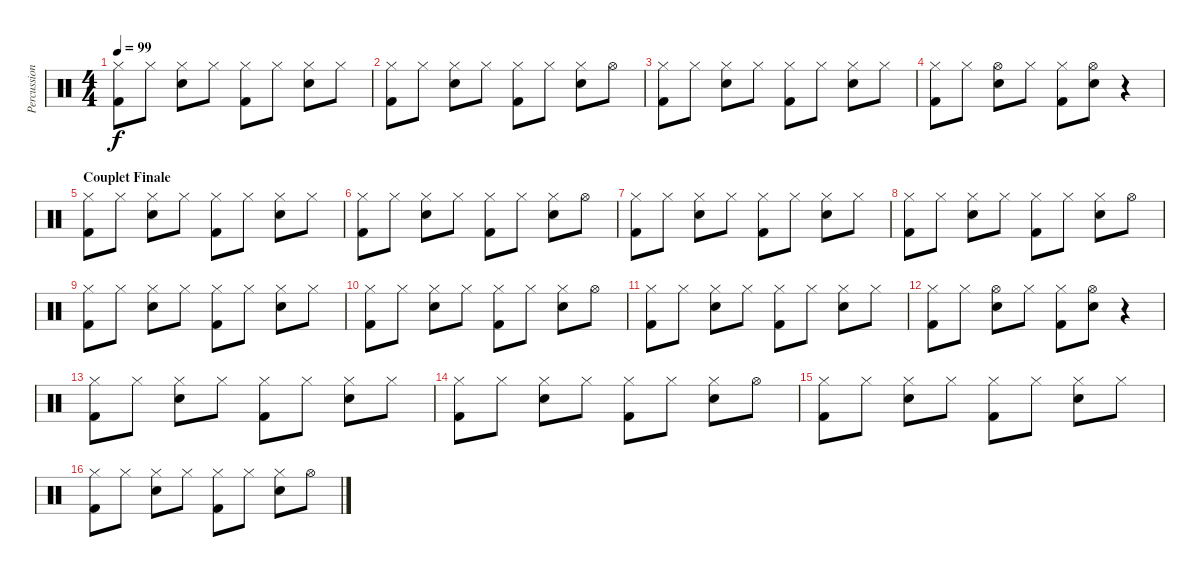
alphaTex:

\track ("Percussions" "Percussion") {instrument percussion}
\staff {score}
\articulation defaults
\ts (4 4)
\tempo 99
\clef neutral
\ks c
("Hi-Hat (closed)" "Kick (hit) 2").8{dy f} "Hi-Hat (closed)".8 ("Hi-Hat (closed)" "Electric Snare (hit)").8 "Hi-Hat (closed)".8 ("Hi-Hat (closed)" "Kick (hit) 2").8 "Hi-Hat (closed)".8 ("Hi-Hat (closed)" "Electric Snare (hit)").8 "Hi-Hat (closed)".8 |
("Hi-Hat (closed)" "Kick (hit) 2").8 "Hi-Hat (closed)".8 ("Hi-Hat (closed)" "Electric Snare (hit)").8 "Hi-Hat (closed)".8 ("Hi-Hat (closed)" "Kick (hit) 2").8 "Hi-Hat (closed)".8 ("Hi-Hat (closed)" "Electric Snare (hit)").8 "Hi-Hat (open)".8 |
("Hi-Hat (closed)" "Kick (hit) 2").8 "Hi-Hat (closed)".8 ("Hi-Hat (closed)" "Electric Snare (hit)").8 "Hi-Hat (closed)".8 ("Hi-Hat (closed)" "Kick (hit) 2").8 "Hi-Hat (closed)".8 ("Hi-Hat (closed)" "Electric Snare (hit)").8 "Hi-Hat (closed)".8 |
("Hi-Hat (closed)" "Kick (hit) 2").8 "Hi-Hat (closed)".8 ("Hi-Hat (open)" "Electric Snare (hit)").8 "Hi-Hat (closed)".8 ("Hi-Hat (closed)" "Kick (hit) 2").8 ("Hi-Hat (open)" "Electric Snare (hit)").8 r.4 |
\section ("" "Couplet Finale")
("Hi-Hat (closed)" "Kick (hit) 2").8 "Hi-Hat (closed)".8 ("Hi-Hat (closed)" "Electric Snare (hit)").8 "Hi-Hat (closed)".8 ("Hi-Hat (closed)" "Kick (hit) 2").8 "Hi-Hat (closed)".8 ("Hi-Hat (closed)" "Electric Snare (hit)").8 "Hi-Hat (closed)".8 |
("Hi-Hat (closed)" "Kick (hit) 2").8 "Hi-Hat (closed)".8 ("Hi-Hat (closed)" "Electric Snare (hit)").8 "Hi-Hat (closed)".8 ("Hi-Hat (closed)" "Kick (hit) 2").8 "Hi-Hat (closed)".8 ("Hi-Hat (closed)" "Electric Snare (hit)").8 "Hi-Hat (open)".8 |
("Hi-Hat (closed)" "Kick (hit) 2").8 "Hi-Hat (closed)".8 ("Hi-Hat (closed)" "Electric Snare (hit)").8 "Hi-Hat (closed)".8 ("Hi-Hat (closed)" "Kick (hit) 2").8 "Hi-Hat (closed)".8 ("Hi-Hat (closed)" "Electric Snare (hit)").8 "Hi-Hat (closed)".8 |
("Hi-Hat (closed)" "Kick (hit) 2").8 "Hi-Hat (closed)".8 ("Hi-Hat (closed)" "Electric Snare (hit)").8 "Hi-Hat (closed)".8 ("Hi-Hat (closed)" "Kick (hit) 2").8 "Hi-Hat (closed)".8 ("Hi-Hat (closed)" "Electric Snare (hit)").8 "Hi-Hat (open)".8 |
("Hi-Hat (closed)" "Kick (hit) 2").8 "Hi-Hat (closed)".8 ("Hi-Hat (closed)" "Electric Snare (hit)").8 "Hi-Hat (closed)".8 ("Hi-Hat (closed)" "Kick (hit) 2").8 "Hi-Hat (closed)".8 ("Hi-Hat (closed)" "Electric Snare (hit)").8 "Hi-Hat (closed)".8 |
("Hi-Hat (closed)" "Kick (hit) 2").8 "Hi-Hat (closed)".8 ("Hi-Hat (closed)" "Electric Snare (hit)").8 "Hi-Hat (closed)".8 ("Hi-Hat (closed)" "Kick (hit) 2").8 "Hi-Hat (closed)".8 ("Hi-Hat (closed)" "Electric Snare (hit)").8 "Hi-Hat (open)".8 |
("Hi-Hat (closed)" "Kick (hit) 2").8 "Hi-Hat (closed)".8 ("Hi-Hat (closed)" "Electric Snare (hit)").8 "Hi-Hat (closed)".8 ("Hi-Hat (closed)" "Kick (hit) 2").8 "Hi-Hat (closed)".8 ("Hi-Hat (closed)" "Electric Snare (hit)").8 "Hi-Hat (closed)".8 |
("Hi-Hat (closed)" "Kick (hit) 2").8 "Hi-Hat (closed)".8 ("Hi-Hat (open)" "Electric Snare (hit)").8 "Hi-Hat (closed)".8 ("Hi-Hat (closed)" "Kick (hit) 2").8 ("Hi-Hat (open)" "Electric Snare (hit)").8 r.4 |
("Hi-Hat (closed)" "Kick (hit) 2").8 "Hi-Hat (closed)".8 ("Hi-Hat (closed)" "Electric Snare (hit)").8 "Hi-Hat (closed)".8 ("Hi-Hat (closed)" "Kick (hit) 2").8 "Hi-Hat (closed)".8 ("Hi-Hat (closed)" "Electric Snare (hit)").8 "Hi-Hat (closed)".8 |
("Hi-Hat (closed)" "Kick (hit) 2").8 "Hi-Hat (closed)".8 ("Hi-Hat (closed)" "Electric Snare (hit)").8 "Hi-Hat (closed)".8 ("Hi-Hat (closed)" "Kick (hit) 2").8 "Hi-Hat (closed)".8 ("Hi-Hat (closed)" "Electric Snare (hit)").8 "Hi-Hat (open)".8 |
("Hi-Hat (closed)" "Kick (hit) 2").8 "Hi-Hat (closed)".8 ("Hi-Hat (closed)" "Electric Snare (hit)").8 "Hi-Hat (closed)".8 ("Hi-Hat (closed)" "Kick (hit) 2").8 "Hi-Hat (closed)".8 ("Hi-Hat (closed)" "Electric Snare (hit)").8 "Hi-Hat (closed)".8 |
("Hi-Hat (closed)" "Kick (hit) 2").8 "Hi-Hat (closed)".8 ("Hi-Hat (closed)" "Electric Snare (hit)").8 "Hi-Hat (closed)".8 ("Hi-Hat (closed)" "Kick (hit) 2").8 "Hi-Hat (closed)".8 ("Hi-Hat (closed)" "Electric Snare (hit)").8 "Hi-Hat (open)".8
